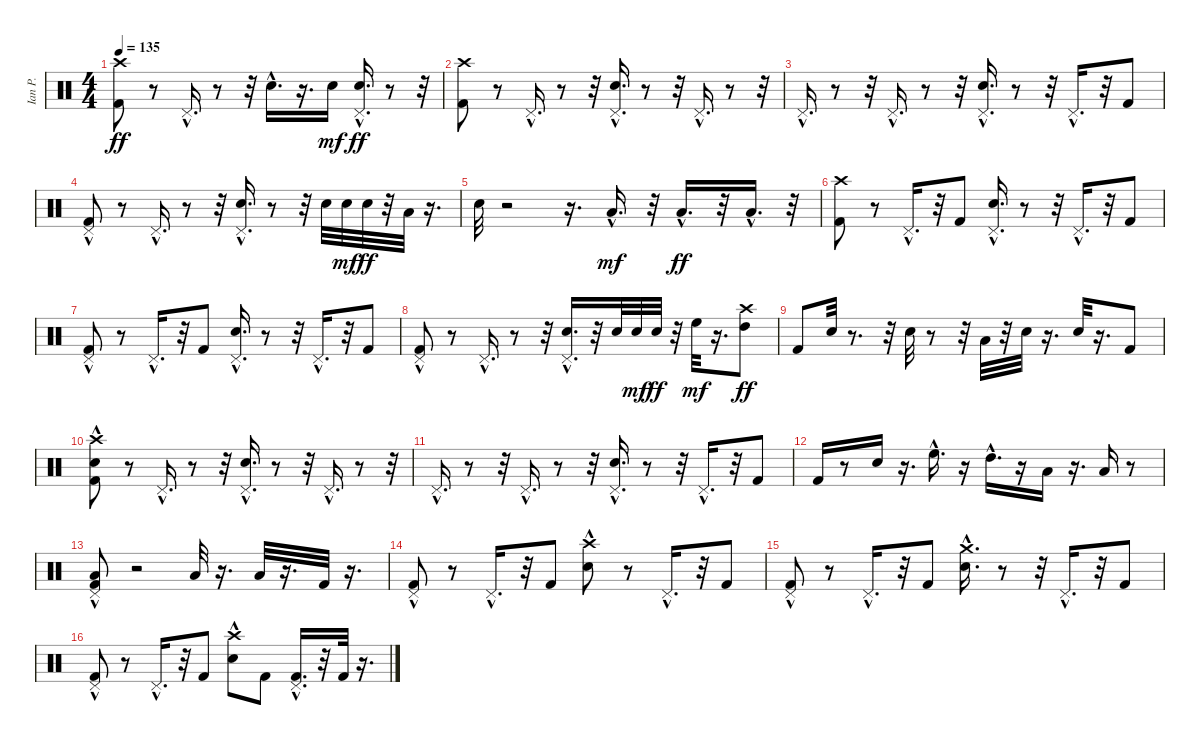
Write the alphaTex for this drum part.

\track ("Ian P." "Ian P.") {instrument percussion}
\staff {score}
\articulation defaults
\ts (4 4)
\tempo 135
\clef neutral
\ks c
("Crash high (hit)" "Kick (hit) 2").8{dy ff} r.8 "Pedal Hi-Hat (hit)"{hac}.16{d} r.8 r.32 "Snare (hit) 2"{hac}.16{d} r.16{d} "Snare (hit) 2".16{dy mf} ("Snare (hit) 2"{hac} "Pedal Hi-Hat (hit)"{hac}).16{d dy ff} r.8 r.32 |
("Kick (hit) 2" "Crash high (hit)").8 r.8 "Pedal Hi-Hat (hit)"{hac}.16{d} r.8 r.32 ("Snare (hit) 2"{hac} "Pedal Hi-Hat (hit)"{hac}).16{d} r.8 r.32 "Pedal Hi-Hat (hit)"{hac}.16{d} r.8 r.32 |
"Pedal Hi-Hat (hit)"{hac}.16{d} r.8 r.32 "Pedal Hi-Hat (hit)"{hac}.16{d} r.8 r.32 ("Snare (hit) 2"{hac} "Pedal Hi-Hat (hit)"{hac}).16{d} r.8 r.32 "Pedal Hi-Hat (hit)"{hac}.16{d} r.32 "Kick (hit) 2".8 |
("Kick (hit) 2" "Pedal Hi-Hat (hit)"{hac}).8 r.8 "Pedal Hi-Hat (hit)"{hac}.16{d} r.8 r.32 ("Snare (hit) 2"{hac} "Pedal Hi-Hat (hit)"{hac}).16{d} r.8 r.32 "Snare (hit) 2".32 "Snare (hit) 2".32{dy mf} "Snare (hit) 2".32{dy ff} r.32 "Low Floor Tom (hit)".32 r.16{d} |
"Snare (hit) 2".32 r.2 r.16{d} "Low Tom (hit)"{hac}.16{d dy mf} r.32 "Low Floor Tom (hit)"{hac}.16{d dy ff} r.32 "Low Floor Tom (hit)"{hac}.16{d} r.32 |
("Crash high (hit)" "Kick (hit) 2").8 r.8 "Pedal Hi-Hat (hit)"{hac}.16{d} r.32 "Kick (hit) 2".8 ("Snare (hit) 2"{hac} "Pedal Hi-Hat (hit)"{hac}).16{d} r.8 r.32 "Pedal Hi-Hat (hit)"{hac}.16{d} r.32 "Kick (hit) 2".8 |
("Kick (hit) 2" "Pedal Hi-Hat (hit)"{hac}).8 r.8 "Pedal Hi-Hat (hit)"{hac}.16{d} r.32 "Kick (hit) 2".8 ("Snare (hit) 2"{hac} "Pedal Hi-Hat (hit)"{hac}).16{d} r.8 r.32 "Pedal Hi-Hat (hit)"{hac}.16{d} r.32 "Kick (hit) 2".8 |
("Kick (hit) 2" "Pedal Hi-Hat (hit)"{hac}).8 r.8 "Pedal Hi-Hat (hit)"{hac}.16{d} r.8 r.32 ("Snare (hit) 2" "Pedal Hi-Hat (hit)"{hac}).16{d} r.32 "Snare (hit) 2".32 "Snare (hit) 2".32{dy mf} "Snare (hit) 2".32{dy ff} r.32 "High Floor Tom (hit)".32{dy mf} r.16{d} ("High Tom (hit)" "Crash high (hit)").8{dy ff} |
"Kick (hit) 2".8 "Snare (hit) 2".32 r.8{d} r.32 "Snare (hit) 2".32 r.8 r.32 "Low Tom (hit)".32 r.32 "Snare (hit) 2".32 r.16{d} "Snare (hit) 2".32 r.16{d} "Kick (hit) 2".8 |
("Snare (hit) 2"{hac} "Kick (hit) 2" "Crash high (hit)").8 r.8 "Pedal Hi-Hat (hit)"{hac}.16{d} r.8 r.32 ("Snare (hit) 2"{hac} "Pedal Hi-Hat (hit)"{hac}).16{d} r.8 r.32 "Pedal Hi-Hat (hit)"{hac}.16{d} r.8 r.32 |
"Pedal Hi-Hat (hit)"{hac}.16{d} r.8 r.32 "Pedal Hi-Hat (hit)"{hac}.16{d} r.8 r.32 ("Snare (hit) 2"{hac} "Pedal Hi-Hat (hit)"{hac}).16{d} r.8 r.32 "Pedal Hi-Hat (hit)"{hac}.16{d} r.32 "Kick (hit) 2".8 |
"Kick (hit) 2".16 r.8 "Snare (hit) 2".16 r.16{d} "High Floor Tom (hit)"{hac}.16{d} r.16 "High Tom (hit)"{hac}.16{d} r.16 "Low Tom (hit)".16 r.16{d} "Low Floor Tom (hit)".16 r.8 |
("Low Floor Tom (hit)" "Kick (hit) 2" "Pedal Hi-Hat (hit)"{hac}).8 r.2 "Low Tom (hit)".32 r.16{d} "Low Floor Tom (hit)".32 r.16{d} "Kick (hit) 2".32 r.16{d} |
("Kick (hit) 2" "Pedal Hi-Hat (hit)"{hac}).8 r.8 "Pedal Hi-Hat (hit)"{hac}.16{d} r.32 "Kick (hit) 2".8 ("Snare (hit) 2"{hac} "Crash high (hit)").8 r.8 "Pedal Hi-Hat (hit)"{hac}.16{d} r.32 "Kick (hit) 2".8 |
("Kick (hit) 2" "Pedal Hi-Hat (hit)"{hac}).8 r.8 "Pedal Hi-Hat (hit)"{hac}.16{d} r.32 "Kick (hit) 2".8 ("Snare (hit) 2"{hac} "Crash medium (hit)"{hac}).16{d} r.8 r.32 "Pedal Hi-Hat (hit)"{hac}.16{d} r.32 "Kick (hit) 2".8 |
("Kick (hit) 2" "Pedal Hi-Hat (hit)"{hac}).8 r.8 "Pedal Hi-Hat (hit)"{hac}.16{d} r.32 "Kick (hit) 2".8 ("Snare (hit) 2"{hac} "Crash high (hit)").8 "Kick (hit) 2".8 ("Pedal Hi-Hat (hit)"{hac} "Kick (hit) 2").16{d} r.32 "Kick (hit) 2".32 r.16{d}
